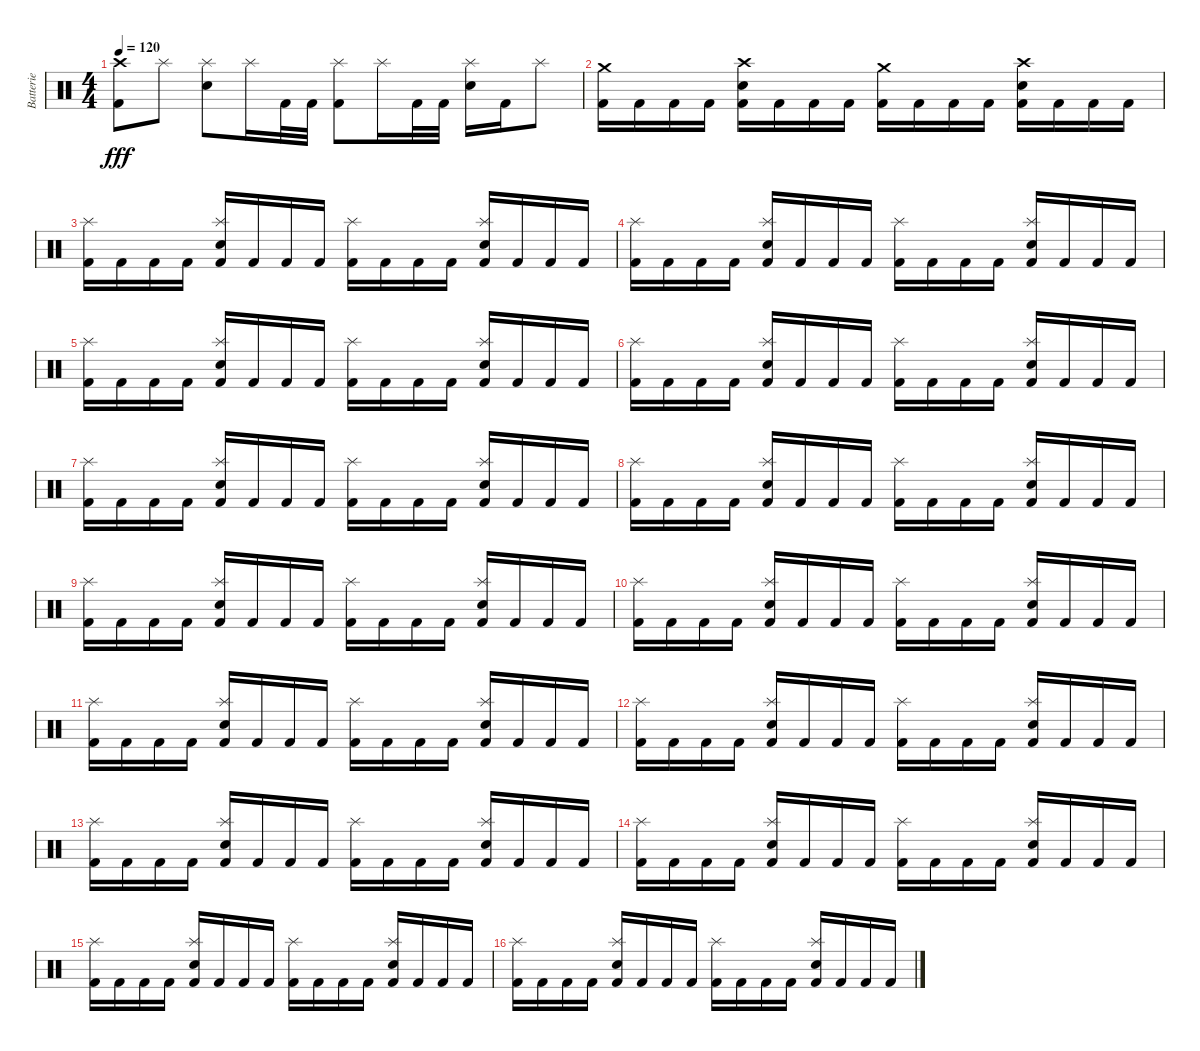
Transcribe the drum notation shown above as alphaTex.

\track ("Batterie" "Batterie") {instrument percussion}
\staff {score}
\articulation defaults
\ts (4 4)
\tempo 120
\clef neutral
\ks c
("Crash high (hit)" "Kick (hit) 2").8{dy fff} "Splash (hit)".8 ("Splash (hit)" "Electric Snare (hit)").8 "Splash (hit)".16 "Kick (hit) 2".32 "Kick (hit) 2".32 ("Splash (hit)" "Kick (hit) 2").8 "Splash (hit)".16 "Kick (hit) 2".32 "Kick (hit) 2".32 ("Splash (hit)" "Electric Snare (hit)").16 "Kick (hit) 2".16 "Splash (hit)".8 |
("Crash medium (hit)" "Kick (hit) 2").16 "Kick (hit) 2".16 "Kick (hit) 2".16 "Kick (hit) 2".16 ("Crash high (hit)" "Electric Snare (hit)" "Kick (hit) 2").16 "Kick (hit) 2".16 "Kick (hit) 2".16 "Kick (hit) 2".16 ("Crash medium (hit)" "Kick (hit) 2").16 "Kick (hit) 2".16 "Kick (hit) 2".16 "Kick (hit) 2".16 ("Crash high (hit)" "Electric Snare (hit)" "Kick (hit) 2").16 "Kick (hit) 2".16 "Kick (hit) 2".16 "Kick (hit) 2".16 |
("Splash (hit)" "Kick (hit) 2").16 "Kick (hit) 2".16 "Kick (hit) 2".16 "Kick (hit) 2".16 ("Splash (hit)" "Electric Snare (hit)" "Kick (hit) 2").16 "Kick (hit) 2".16 "Kick (hit) 2".16 "Kick (hit) 2".16 ("Splash (hit)" "Kick (hit) 2").16 "Kick (hit) 2".16 "Kick (hit) 2".16 "Kick (hit) 2".16 ("Splash (hit)" "Electric Snare (hit)" "Kick (hit) 2").16 "Kick (hit) 2".16 "Kick (hit) 2".16 "Kick (hit) 2".16 |
("Splash (hit)" "Kick (hit) 2").16 "Kick (hit) 2".16 "Kick (hit) 2".16 "Kick (hit) 2".16 ("Splash (hit)" "Electric Snare (hit)" "Kick (hit) 2").16 "Kick (hit) 2".16 "Kick (hit) 2".16 "Kick (hit) 2".16 ("Splash (hit)" "Kick (hit) 2").16 "Kick (hit) 2".16 "Kick (hit) 2".16 "Kick (hit) 2".16 ("Splash (hit)" "Electric Snare (hit)" "Kick (hit) 2").16 "Kick (hit) 2".16 "Kick (hit) 2".16 "Kick (hit) 2".16 |
("Splash (hit)" "Kick (hit) 2").16 "Kick (hit) 2".16 "Kick (hit) 2".16 "Kick (hit) 2".16 ("Splash (hit)" "Electric Snare (hit)" "Kick (hit) 2").16 "Kick (hit) 2".16 "Kick (hit) 2".16 "Kick (hit) 2".16 ("Splash (hit)" "Kick (hit) 2").16 "Kick (hit) 2".16 "Kick (hit) 2".16 "Kick (hit) 2".16 ("Splash (hit)" "Electric Snare (hit)" "Kick (hit) 2").16 "Kick (hit) 2".16 "Kick (hit) 2".16 "Kick (hit) 2".16 |
("Splash (hit)" "Kick (hit) 2").16 "Kick (hit) 2".16 "Kick (hit) 2".16 "Kick (hit) 2".16 ("Splash (hit)" "Electric Snare (hit)" "Kick (hit) 2").16 "Kick (hit) 2".16 "Kick (hit) 2".16 "Kick (hit) 2".16 ("Splash (hit)" "Kick (hit) 2").16 "Kick (hit) 2".16 "Kick (hit) 2".16 "Kick (hit) 2".16 ("Splash (hit)" "Electric Snare (hit)" "Kick (hit) 2").16 "Kick (hit) 2".16 "Kick (hit) 2".16 "Kick (hit) 2".16 |
("Splash (hit)" "Kick (hit) 2").16 "Kick (hit) 2".16 "Kick (hit) 2".16 "Kick (hit) 2".16 ("Splash (hit)" "Electric Snare (hit)" "Kick (hit) 2").16 "Kick (hit) 2".16 "Kick (hit) 2".16 "Kick (hit) 2".16 ("Splash (hit)" "Kick (hit) 2").16 "Kick (hit) 2".16 "Kick (hit) 2".16 "Kick (hit) 2".16 ("Splash (hit)" "Electric Snare (hit)" "Kick (hit) 2").16 "Kick (hit) 2".16 "Kick (hit) 2".16 "Kick (hit) 2".16 |
("Splash (hit)" "Kick (hit) 2").16 "Kick (hit) 2".16 "Kick (hit) 2".16 "Kick (hit) 2".16 ("Splash (hit)" "Electric Snare (hit)" "Kick (hit) 2").16 "Kick (hit) 2".16 "Kick (hit) 2".16 "Kick (hit) 2".16 ("Splash (hit)" "Kick (hit) 2").16 "Kick (hit) 2".16 "Kick (hit) 2".16 "Kick (hit) 2".16 ("Splash (hit)" "Electric Snare (hit)" "Kick (hit) 2").16 "Kick (hit) 2".16 "Kick (hit) 2".16 "Kick (hit) 2".16 |
("Splash (hit)" "Kick (hit) 2").16 "Kick (hit) 2".16 "Kick (hit) 2".16 "Kick (hit) 2".16 ("Splash (hit)" "Electric Snare (hit)" "Kick (hit) 2").16 "Kick (hit) 2".16 "Kick (hit) 2".16 "Kick (hit) 2".16 ("Splash (hit)" "Kick (hit) 2").16 "Kick (hit) 2".16 "Kick (hit) 2".16 "Kick (hit) 2".16 ("Splash (hit)" "Electric Snare (hit)" "Kick (hit) 2").16 "Kick (hit) 2".16 "Kick (hit) 2".16 "Kick (hit) 2".16 |
("Splash (hit)" "Kick (hit) 2").16 "Kick (hit) 2".16 "Kick (hit) 2".16 "Kick (hit) 2".16 ("Splash (hit)" "Electric Snare (hit)" "Kick (hit) 2").16 "Kick (hit) 2".16 "Kick (hit) 2".16 "Kick (hit) 2".16 ("Splash (hit)" "Kick (hit) 2").16 "Kick (hit) 2".16 "Kick (hit) 2".16 "Kick (hit) 2".16 ("Splash (hit)" "Electric Snare (hit)" "Kick (hit) 2").16 "Kick (hit) 2".16 "Kick (hit) 2".16 "Kick (hit) 2".16 |
("Splash (hit)" "Kick (hit) 2").16 "Kick (hit) 2".16 "Kick (hit) 2".16 "Kick (hit) 2".16 ("Splash (hit)" "Electric Snare (hit)" "Kick (hit) 2").16 "Kick (hit) 2".16 "Kick (hit) 2".16 "Kick (hit) 2".16 ("Splash (hit)" "Kick (hit) 2").16 "Kick (hit) 2".16 "Kick (hit) 2".16 "Kick (hit) 2".16 ("Splash (hit)" "Electric Snare (hit)" "Kick (hit) 2").16 "Kick (hit) 2".16 "Kick (hit) 2".16 "Kick (hit) 2".16 |
("Splash (hit)" "Kick (hit) 2").16 "Kick (hit) 2".16 "Kick (hit) 2".16 "Kick (hit) 2".16 ("Splash (hit)" "Electric Snare (hit)" "Kick (hit) 2").16 "Kick (hit) 2".16 "Kick (hit) 2".16 "Kick (hit) 2".16 ("Splash (hit)" "Kick (hit) 2").16 "Kick (hit) 2".16 "Kick (hit) 2".16 "Kick (hit) 2".16 ("Splash (hit)" "Electric Snare (hit)" "Kick (hit) 2").16 "Kick (hit) 2".16 "Kick (hit) 2".16 "Kick (hit) 2".16 |
("Splash (hit)" "Kick (hit) 2").16 "Kick (hit) 2".16 "Kick (hit) 2".16 "Kick (hit) 2".16 ("Splash (hit)" "Electric Snare (hit)" "Kick (hit) 2").16 "Kick (hit) 2".16 "Kick (hit) 2".16 "Kick (hit) 2".16 ("Splash (hit)" "Kick (hit) 2").16 "Kick (hit) 2".16 "Kick (hit) 2".16 "Kick (hit) 2".16 ("Splash (hit)" "Electric Snare (hit)" "Kick (hit) 2").16 "Kick (hit) 2".16 "Kick (hit) 2".16 "Kick (hit) 2".16 |
("Splash (hit)" "Kick (hit) 2").16 "Kick (hit) 2".16 "Kick (hit) 2".16 "Kick (hit) 2".16 ("Splash (hit)" "Electric Snare (hit)" "Kick (hit) 2").16 "Kick (hit) 2".16 "Kick (hit) 2".16 "Kick (hit) 2".16 ("Splash (hit)" "Kick (hit) 2").16 "Kick (hit) 2".16 "Kick (hit) 2".16 "Kick (hit) 2".16 ("Splash (hit)" "Electric Snare (hit)" "Kick (hit) 2").16 "Kick (hit) 2".16 "Kick (hit) 2".16 "Kick (hit) 2".16 |
("Splash (hit)" "Kick (hit) 2").16 "Kick (hit) 2".16 "Kick (hit) 2".16 "Kick (hit) 2".16 ("Splash (hit)" "Electric Snare (hit)" "Kick (hit) 2").16 "Kick (hit) 2".16 "Kick (hit) 2".16 "Kick (hit) 2".16 ("Splash (hit)" "Kick (hit) 2").16 "Kick (hit) 2".16 "Kick (hit) 2".16 "Kick (hit) 2".16 ("Splash (hit)" "Electric Snare (hit)" "Kick (hit) 2").16 "Kick (hit) 2".16 "Kick (hit) 2".16 "Kick (hit) 2".16 |
("Splash (hit)" "Kick (hit) 2").16 "Kick (hit) 2".16 "Kick (hit) 2".16 "Kick (hit) 2".16 ("Splash (hit)" "Electric Snare (hit)" "Kick (hit) 2").16 "Kick (hit) 2".16 "Kick (hit) 2".16 "Kick (hit) 2".16 ("Splash (hit)" "Kick (hit) 2").16 "Kick (hit) 2".16 "Kick (hit) 2".16 "Kick (hit) 2".16 ("Splash (hit)" "Electric Snare (hit)" "Kick (hit) 2").16 "Kick (hit) 2".16 "Kick (hit) 2".16 "Kick (hit) 2".16
